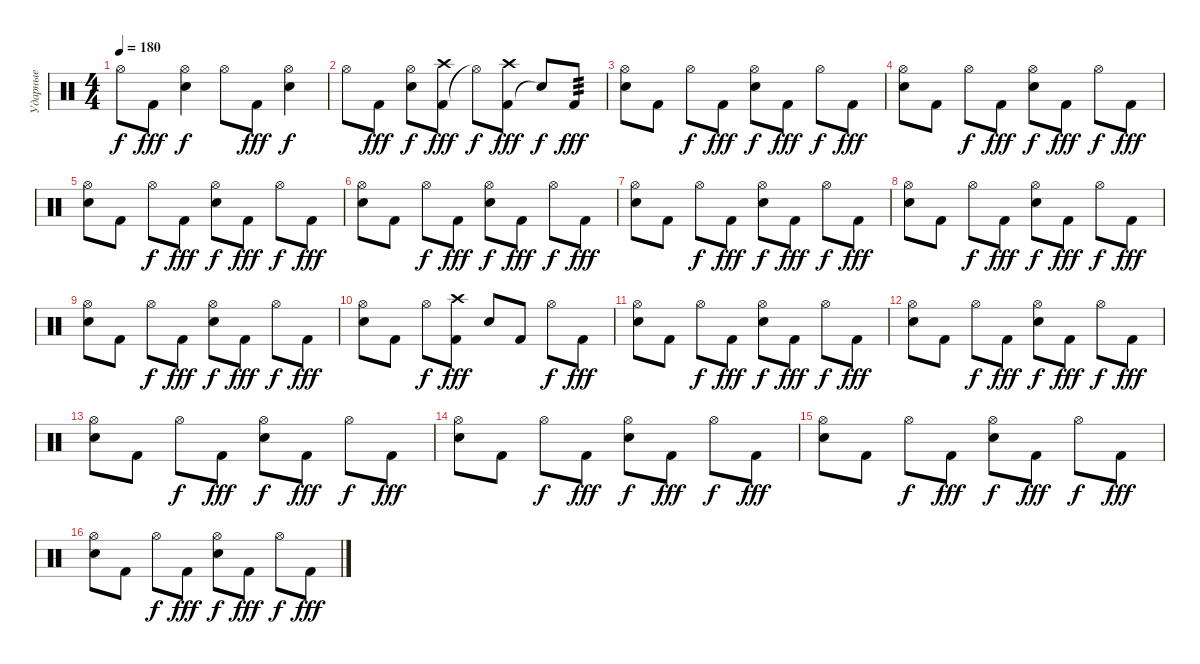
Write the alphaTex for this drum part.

\track ("Ударные" "Ударные") {instrument percussion}
\staff
\articulation defaults
\ts (4 4)
\tempo 180
\clef neutral
\ks c "Hi-Hat (open)".8{dy f} "Kick (hit) 2".8{dy fff}
("Snare (hit) 2" "Hi-Hat (open)").4{dy f} "Hi-Hat (open)".8 "Kick (hit) 2".8{dy fff} ("Snare (hit) 2" "Hi-Hat (open)").4{dy f} |
"Hi-Hat (open)".8 "Kick (hit) 2".8{dy fff} ("Snare (hit) 2" "Hi-Hat (open)").8{dy f} ("Kick (hit) 2" "Crash high (hit)").8{dy fff} "Hi-Hat (open)"{t}.8{dy f} ("Kick (hit) 2" "Crash high (hit)").8{dy fff} "Snare (hit)"{t}.8{dy f} "Kick (hit) 2".8{tp 3 dy fff} |
("Snare (hit) 2" "Hi-Hat (open)").8 "Kick (hit) 2".8 "Hi-Hat (open)".8{dy f} "Kick (hit) 2".8{dy fff} ("Snare (hit) 2" "Hi-Hat (open)").8{dy f} "Kick (hit) 2".8{dy fff} "Hi-Hat (open)".8{dy f} "Kick (hit) 2".8{dy fff} |
("Snare (hit) 2" "Hi-Hat (open)").8 "Kick (hit) 2".8 "Hi-Hat (open)".8{dy f} "Kick (hit) 2".8{dy fff} ("Snare (hit) 2" "Hi-Hat (open)").8{dy f} "Kick (hit) 2".8{dy fff} "Hi-Hat (open)".8{dy f} "Kick (hit) 2".8{dy fff} |
("Snare (hit) 2" "Hi-Hat (open)").8 "Kick (hit) 2".8 "Hi-Hat (open)".8{dy f} "Kick (hit) 2".8{dy fff} ("Snare (hit) 2" "Hi-Hat (open)").8{dy f} "Kick (hit) 2".8{dy fff} "Hi-Hat (open)".8{dy f} "Kick (hit) 2".8{dy fff} |
("Snare (hit) 2" "Hi-Hat (open)").8 "Kick (hit) 2".8 "Hi-Hat (open)".8{dy f} "Kick (hit) 2".8{dy fff} ("Snare (hit) 2" "Hi-Hat (open)").8{dy f} "Kick (hit) 2".8{dy fff} "Hi-Hat (open)".8{dy f} "Kick (hit) 2".8{dy fff} |
("Snare (hit) 2" "Hi-Hat (open)").8 "Kick (hit) 2".8 "Hi-Hat (open)".8{dy f} "Kick (hit) 2".8{dy fff} ("Snare (hit) 2" "Hi-Hat (open)").8{dy f} "Kick (hit) 2".8{dy fff} "Hi-Hat (open)".8{dy f} "Kick (hit) 2".8{dy fff} |
("Snare (hit) 2" "Hi-Hat (open)").8 "Kick (hit) 2".8 "Hi-Hat (open)".8{dy f} "Kick (hit) 2".8{dy fff} ("Snare (hit) 2" "Hi-Hat (open)").8{dy f} "Kick (hit) 2".8{dy fff} "Hi-Hat (open)".8{dy f} "Kick (hit) 2".8{dy fff} |
("Snare (hit) 2" "Hi-Hat (open)").8 "Kick (hit) 2".8 "Hi-Hat (open)".8{dy f} "Kick (hit) 2".8{dy fff} ("Snare (hit) 2" "Hi-Hat (open)").8{dy f} "Kick (hit) 2".8{dy fff} "Hi-Hat (open)".8{dy f} "Kick (hit) 2".8{dy fff} |
("Snare (hit) 2" "Hi-Hat (open)").8 "Kick (hit) 2".8 "Hi-Hat (open)".8{dy f} ("Kick (hit) 2" "Crash high (hit)").8{dy fff} "Snare (hit) 2".8 "Kick (hit) 2".8 "Hi-Hat (open)".8{dy f} "Kick (hit) 2".8{dy fff} |
("Snare (hit) 2" "Hi-Hat (open)").8 "Kick (hit) 2".8 "Hi-Hat (open)".8{dy f} "Kick (hit) 2".8{dy fff} ("Snare (hit) 2" "Hi-Hat (open)").8{dy f} "Kick (hit) 2".8{dy fff} "Hi-Hat (open)".8{dy f} "Kick (hit) 2".8{dy fff} |
("Snare (hit) 2" "Hi-Hat (open)").8 "Kick (hit) 2".8 "Hi-Hat (open)".8{dy f} "Kick (hit) 2".8{dy fff} ("Snare (hit) 2" "Hi-Hat (open)").8{dy f} "Kick (hit) 2".8{dy fff} "Hi-Hat (open)".8{dy f} "Kick (hit) 2".8{dy fff} |
("Snare (hit) 2" "Hi-Hat (open)").8 "Kick (hit) 2".8 "Hi-Hat (open)".8{dy f} "Kick (hit) 2".8{dy fff} ("Snare (hit) 2" "Hi-Hat (open)").8{dy f} "Kick (hit) 2".8{dy fff} "Hi-Hat (open)".8{dy f} "Kick (hit) 2".8{dy fff} |
("Snare (hit) 2" "Hi-Hat (open)").8 "Kick (hit) 2".8 "Hi-Hat (open)".8{dy f} "Kick (hit) 2".8{dy fff} ("Snare (hit) 2" "Hi-Hat (open)").8{dy f} "Kick (hit) 2".8{dy fff} "Hi-Hat (open)".8{dy f} "Kick (hit) 2".8{dy fff} |
("Snare (hit) 2" "Hi-Hat (open)").8 "Kick (hit) 2".8 "Hi-Hat (open)".8{dy f} "Kick (hit) 2".8{dy fff} ("Snare (hit) 2" "Hi-Hat (open)").8{dy f} "Kick (hit) 2".8{dy fff} "Hi-Hat (open)".8{dy f} "Kick (hit) 2".8{dy fff} |
("Snare (hit) 2" "Hi-Hat (open)").8 "Kick (hit) 2".8 "Hi-Hat (open)".8{dy f} "Kick (hit) 2".8{dy fff} ("Snare (hit) 2" "Hi-Hat (open)").8{dy f} "Kick (hit) 2".8{dy fff} "Hi-Hat (open)".8{dy f} "Kick (hit) 2".8{dy fff}
